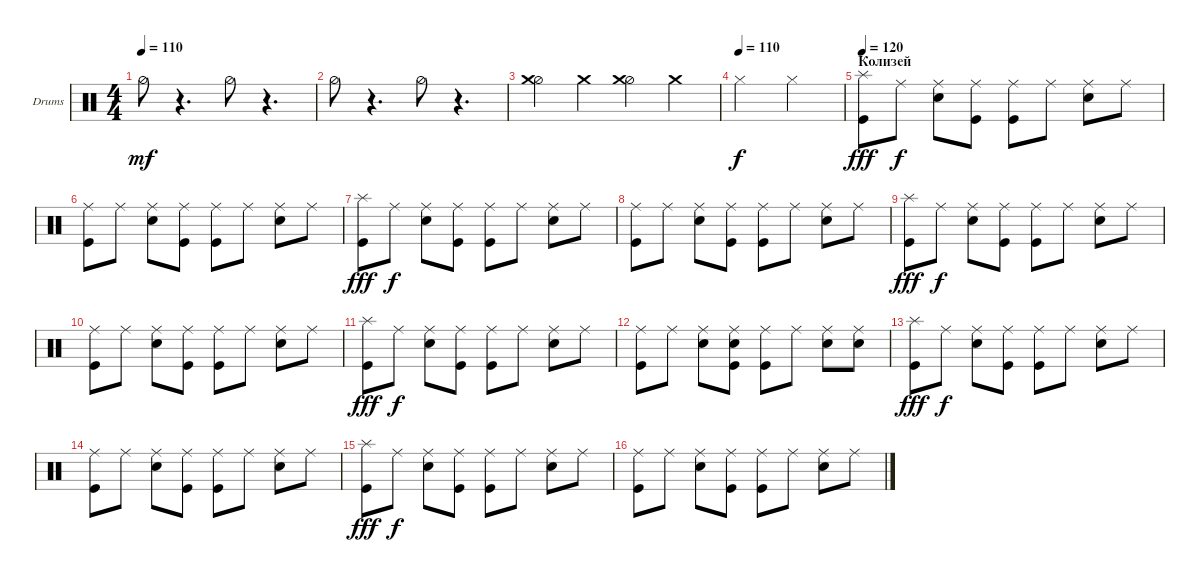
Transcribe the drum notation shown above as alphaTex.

\defaultSystemsLayout 4
\bracketExtendMode nobrackets
\firstSystemTrackNameOrientation horizontal
\otherSystemsTrackNameOrientation horizontal
\track ("Ударные" "Drums") {instrument percussion}
\staff {score}
\articulation defaults
\ts (4 4)
\tempo 110
\clef neutral
\ks c "Hi-Hat (half)".8{dy mf}
r.4{d} "Hi-Hat (half)".8 r.4{d} |
"Hi-Hat (half)".8 r.4{d} "Hi-Hat (half)".8 r.4{d} |
("Hi-Hat (half)" "Crash medium (hit)").4 "Crash medium (hit)".4 ("Hi-Hat (half)" "Crash medium (hit)").4 "Crash medium (hit)".4 |
\tempo (110)
"Hi-Hat (closed)".2{dy f} "Hi-Hat (closed)".2 |
\section ("" "Колизей")
\tempo 120
("Kick (hit)" "Splash (hit)").8{dy fff} "Ride (middle)".8{dy f} ("Ride (middle)" "Snare (hit) 2").8 ("Kick (hit)" "Ride (middle)").8 ("Kick (hit)" "Ride (middle)").8 "Ride (middle)".8 ("Ride (middle)" "Snare (hit) 2").8 "Ride (middle)".8 |
("Kick (hit)" "Ride (middle)").8 "Ride (middle)".8 ("Ride (middle)" "Snare (hit) 2").8 ("Kick (hit)" "Ride (middle)").8 ("Kick (hit)" "Ride (middle)").8 "Ride (middle)".8 ("Ride (middle)" "Snare (hit) 2").8 "Ride (middle)".8 |
("Kick (hit)" "Splash (hit)").8{dy fff} "Ride (middle)".8{dy f} ("Ride (middle)" "Snare (hit) 2").8 ("Kick (hit)" "Ride (middle)").8 ("Kick (hit)" "Ride (middle)").8 "Ride (middle)".8 ("Ride (middle)" "Snare (hit) 2").8 "Ride (middle)".8 |
("Kick (hit)" "Ride (middle)").8 "Ride (middle)".8 ("Ride (middle)" "Snare (hit) 2").8 ("Kick (hit)" "Ride (middle)").8 ("Kick (hit)" "Ride (middle)").8 "Ride (middle)".8 ("Ride (middle)" "Snare (hit) 2").8 "Ride (middle)".8 |
("Kick (hit)" "Splash (hit)").8{dy fff} "Ride (middle)".8{dy f} ("Ride (middle)" "Snare (hit) 2").8 ("Kick (hit)" "Ride (middle)").8 ("Kick (hit)" "Ride (middle)").8 "Ride (middle)".8 ("Ride (middle)" "Snare (hit) 2").8 "Ride (middle)".8 |
("Kick (hit)" "Ride (middle)").8 "Ride (middle)".8 ("Ride (middle)" "Snare (hit) 2").8 ("Kick (hit)" "Ride (middle)").8 ("Kick (hit)" "Ride (middle)").8 "Ride (middle)".8 ("Ride (middle)" "Snare (hit) 2").8 "Ride (middle)".8 |
("Kick (hit)" "Splash (hit)").8{dy fff} "Ride (middle)".8{dy f} ("Ride (middle)" "Snare (hit) 2").8 ("Kick (hit)" "Ride (middle)").8 ("Kick (hit)" "Ride (middle)").8 "Ride (middle)".8 ("Ride (middle)" "Snare (hit) 2").8 "Ride (middle)".8 |
("Kick (hit)" "Ride (middle)").8 "Ride (middle)".8 ("Ride (middle)" "Snare (hit) 2").8 ("Kick (hit)" "Ride (middle)" "Snare (hit) 2").8 ("Kick (hit)" "Ride (middle)").8 "Ride (middle)".8 ("Ride (middle)" "Snare (hit) 2").8 ("Ride (middle)" "Snare (hit) 2").8 |
("Kick (hit)" "Splash (hit)").8{dy fff} "Ride (middle)".8{dy f} ("Ride (middle)" "Snare (hit) 2").8 ("Kick (hit)" "Ride (middle)").8 ("Kick (hit)" "Ride (middle)").8 "Ride (middle)".8 ("Ride (middle)" "Snare (hit) 2").8 "Ride (middle)".8 |
("Kick (hit)" "Ride (middle)").8 "Ride (middle)".8 ("Ride (middle)" "Snare (hit) 2").8 ("Kick (hit)" "Ride (middle)").8 ("Kick (hit)" "Ride (middle)").8 "Ride (middle)".8 ("Ride (middle)" "Snare (hit) 2").8 "Ride (middle)".8 |
("Kick (hit)" "Splash (hit)").8{dy fff} "Ride (middle)".8{dy f} ("Ride (middle)" "Snare (hit) 2").8 ("Kick (hit)" "Ride (middle)").8 ("Kick (hit)" "Ride (middle)").8 "Ride (middle)".8 ("Ride (middle)" "Snare (hit) 2").8 "Ride (middle)".8 |
("Kick (hit)" "Ride (middle)").8 "Ride (middle)".8 ("Ride (middle)" "Snare (hit) 2").8 ("Kick (hit)" "Ride (middle)").8 ("Kick (hit)" "Ride (middle)").8 "Ride (middle)".8 ("Ride (middle)" "Snare (hit) 2").8 "Ride (middle)".8
